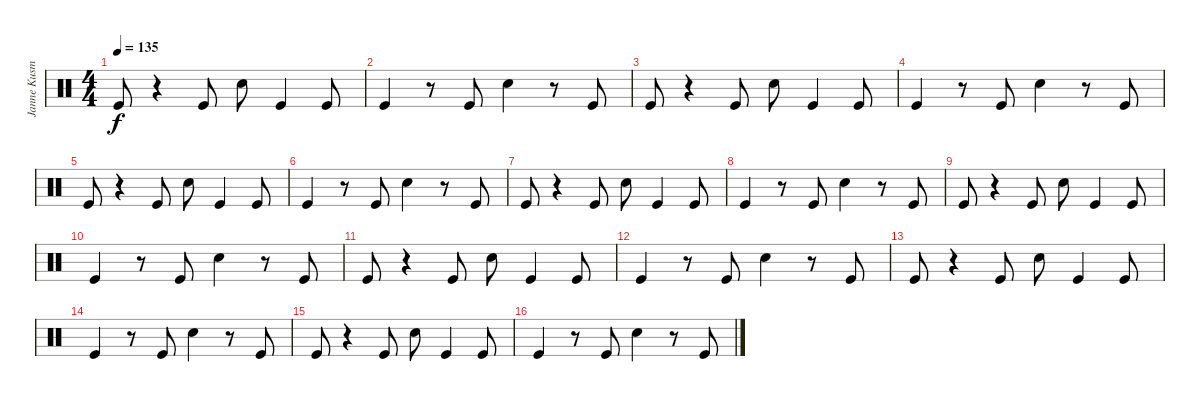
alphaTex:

\track ("Janne Kusmin" "Janne Kusm") {instrument percussion}
\staff {score}
\articulation defaults
\ts (4 4)
\tempo 135
\clef neutral
\ks c "Kick (hit)".8{dy f}
r.4 "Kick (hit)".8 "Electric Snare (hit)".8 "Kick (hit)".4 "Kick (hit)".8 |
"Kick (hit)".4 r.8 "Kick (hit)".8 "Electric Snare (hit)".4 r.8 "Kick (hit)".8 |
"Kick (hit)".8 r.4 "Kick (hit)".8 "Electric Snare (hit)".8 "Kick (hit)".4 "Kick (hit)".8 |
"Kick (hit)".4 r.8 "Kick (hit)".8 "Electric Snare (hit)".4 r.8 "Kick (hit)".8 |
"Kick (hit)".8 r.4 "Kick (hit)".8 "Electric Snare (hit)".8 "Kick (hit)".4 "Kick (hit)".8 |
"Kick (hit)".4 r.8 "Kick (hit)".8 "Electric Snare (hit)".4 r.8 "Kick (hit)".8 |
"Kick (hit)".8 r.4 "Kick (hit)".8 "Electric Snare (hit)".8 "Kick (hit)".4 "Kick (hit)".8 |
"Kick (hit)".4 r.8 "Kick (hit)".8 "Electric Snare (hit)".4 r.8 "Kick (hit)".8 |
"Kick (hit)".8 r.4 "Kick (hit)".8 "Electric Snare (hit)".8 "Kick (hit)".4 "Kick (hit)".8 |
"Kick (hit)".4 r.8 "Kick (hit)".8 "Electric Snare (hit)".4 r.8 "Kick (hit)".8 |
"Kick (hit)".8 r.4 "Kick (hit)".8 "Electric Snare (hit)".8 "Kick (hit)".4 "Kick (hit)".8 |
"Kick (hit)".4 r.8 "Kick (hit)".8 "Electric Snare (hit)".4 r.8 "Kick (hit)".8 |
"Kick (hit)".8 r.4 "Kick (hit)".8 "Electric Snare (hit)".8 "Kick (hit)".4 "Kick (hit)".8 |
"Kick (hit)".4 r.8 "Kick (hit)".8 "Electric Snare (hit)".4 r.8 "Kick (hit)".8 |
"Kick (hit)".8 r.4 "Kick (hit)".8 "Electric Snare (hit)".8 "Kick (hit)".4 "Kick (hit)".8 |
"Kick (hit)".4 r.8 "Kick (hit)".8 "Electric Snare (hit)".4 r.8 "Kick (hit)".8
